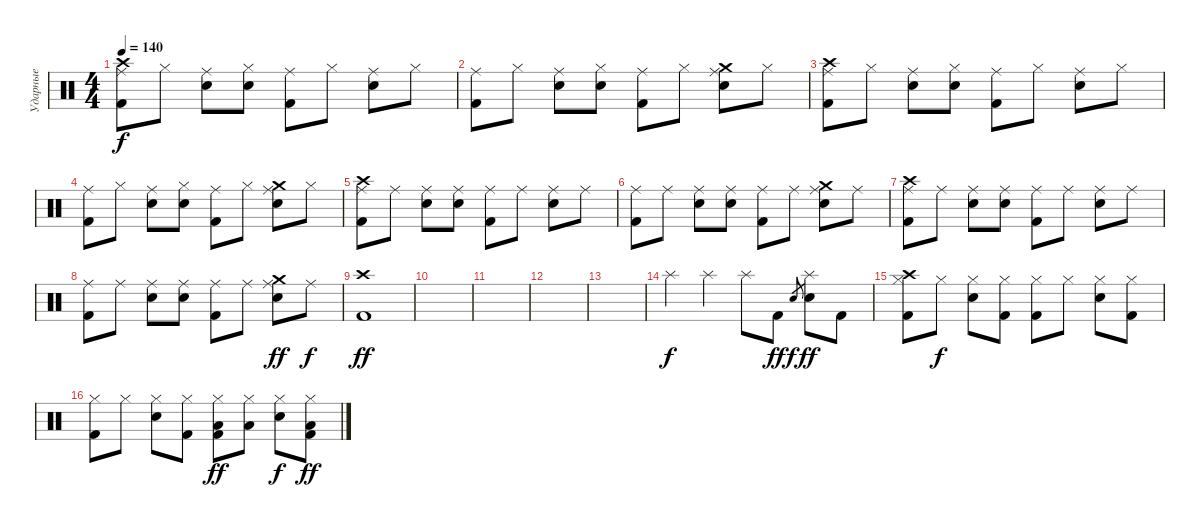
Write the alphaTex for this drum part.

\track ("Ударные" "Ударные") {instrument percussion}
\staff {score}
\articulation defaults
\ts (4 4)
\tempo 140
\clef neutral
\ks c
("Crash high (hit)" "Ride (middle)" "Kick (hit) 2").8{dy f} "Hi-Hat (closed)".8 ("Ride (middle)" "Snare (hit) 2").8 ("Hi-Hat (closed)" "Snare (hit) 2").8 ("Ride (middle)" "Kick (hit) 2").8 "Hi-Hat (closed)".8 ("Ride (middle)" "Snare (hit) 2").8 "Hi-Hat (closed)".8 |
("Ride (middle)" "Kick (hit) 2").8 "Hi-Hat (closed)".8 ("Ride (middle)" "Snare (hit) 2").8 ("Hi-Hat (closed)" "Snare (hit) 2").8 ("Ride (middle)" "Kick (hit) 2").8 "Hi-Hat (closed)".8 ("Crash medium (hit)" "Ride (middle)" "Snare (hit) 2").8 "Hi-Hat (closed)".8 |
("Crash high (hit)" "Ride (middle)" "Kick (hit) 2").8 "Hi-Hat (closed)".8 ("Ride (middle)" "Snare (hit) 2").8 ("Hi-Hat (closed)" "Snare (hit) 2").8 ("Ride (middle)" "Kick (hit) 2").8 "Hi-Hat (closed)".8 ("Ride (middle)" "Snare (hit) 2").8 "Hi-Hat (closed)".8 |
("Ride (middle)" "Kick (hit) 2").8 "Hi-Hat (closed)".8 ("Ride (middle)" "Snare (hit) 2").8 ("Hi-Hat (closed)" "Snare (hit) 2").8 ("Ride (middle)" "Kick (hit) 2").8 "Hi-Hat (closed)".8 ("Crash medium (hit)" "Ride (middle)" "Snare (hit) 2").8 "Hi-Hat (closed)".8 |
("Crash high (hit)" "Ride (middle)" "Kick (hit) 2").8 "Ride (middle)".8 ("Ride (middle)" "Snare (hit) 2").8 ("Ride (middle)" "Snare (hit) 2").8 ("Ride (middle)" "Kick (hit) 2").8 "Ride (middle)".8 ("Ride (middle)" "Snare (hit) 2").8 "Ride (middle)".8 |
("Ride (middle)" "Kick (hit) 2").8 "Ride (middle)".8 ("Ride (middle)" "Snare (hit) 2").8 ("Ride (middle)" "Snare (hit) 2").8 ("Ride (middle)" "Kick (hit) 2").8 "Ride (middle)".8 ("Crash medium (hit)" "Ride (middle)" "Snare (hit) 2").8 "Ride (middle)".8 |
("Crash high (hit)" "Ride (middle)" "Kick (hit) 2").8 "Ride (middle)".8 ("Ride (middle)" "Snare (hit) 2").8 ("Ride (middle)" "Snare (hit) 2").8 ("Ride (middle)" "Kick (hit) 2").8 "Ride (middle)".8 ("Ride (middle)" "Snare (hit) 2").8 "Ride (middle)".8 |
("Ride (middle)" "Kick (hit) 2").8 "Ride (middle)".8 ("Ride (middle)" "Snare (hit) 2").8 ("Ride (middle)" "Snare (hit) 2").8 ("Ride (middle)" "Kick (hit) 2").8 "Ride (middle)".8 ("Crash medium (hit)" "Ride (middle)" "Snare (hit) 2").8{dy ff} "Ride (middle)".8{dy f} |
("Kick (hit) 2" "Crash high (hit)").1{dy ff} |
|
|
|
|
"Splash (hit)".4{dy f} "Splash (hit)".4 "Splash (hit)".8 "Kick (hit) 2".8{dy ff} "Electric Snare (hit)".8{gr dy f} ("Electric Snare (hit)" "Splash (hit)").8{dy ff} "Kick (hit) 2".8 |
("Hi-Hat (closed)" "Crash high (hit)" "Kick (hit) 2").8 "Hi-Hat (closed)".8{dy f} ("Hi-Hat (closed)" "Electric Snare (hit)").8 ("Hi-Hat (closed)" "Kick (hit) 2").8 ("Hi-Hat (closed)" "Kick (hit) 2").8 "Hi-Hat (closed)".8 ("Hi-Hat (closed)" "Electric Snare (hit)").8 ("Hi-Hat (closed)" "Kick (hit) 2").8 |
("Hi-Hat (closed)" "Kick (hit) 2").8 "Hi-Hat (closed)".8 ("Hi-Hat (closed)" "Electric Snare (hit)").8 ("Hi-Hat (closed)" "Kick (hit) 2").8 ("Hi-Hat (closed)" "Low Floor Tom (hit)" "Kick (hit) 2").8{dy ff} ("Hi-Hat (closed)" "Low Floor Tom (hit)").8 ("Hi-Hat (closed)" "Electric Snare (hit)").8{dy f} ("Hi-Hat (closed)" "Low Floor Tom (hit)" "Kick (hit) 2").8{dy ff}
